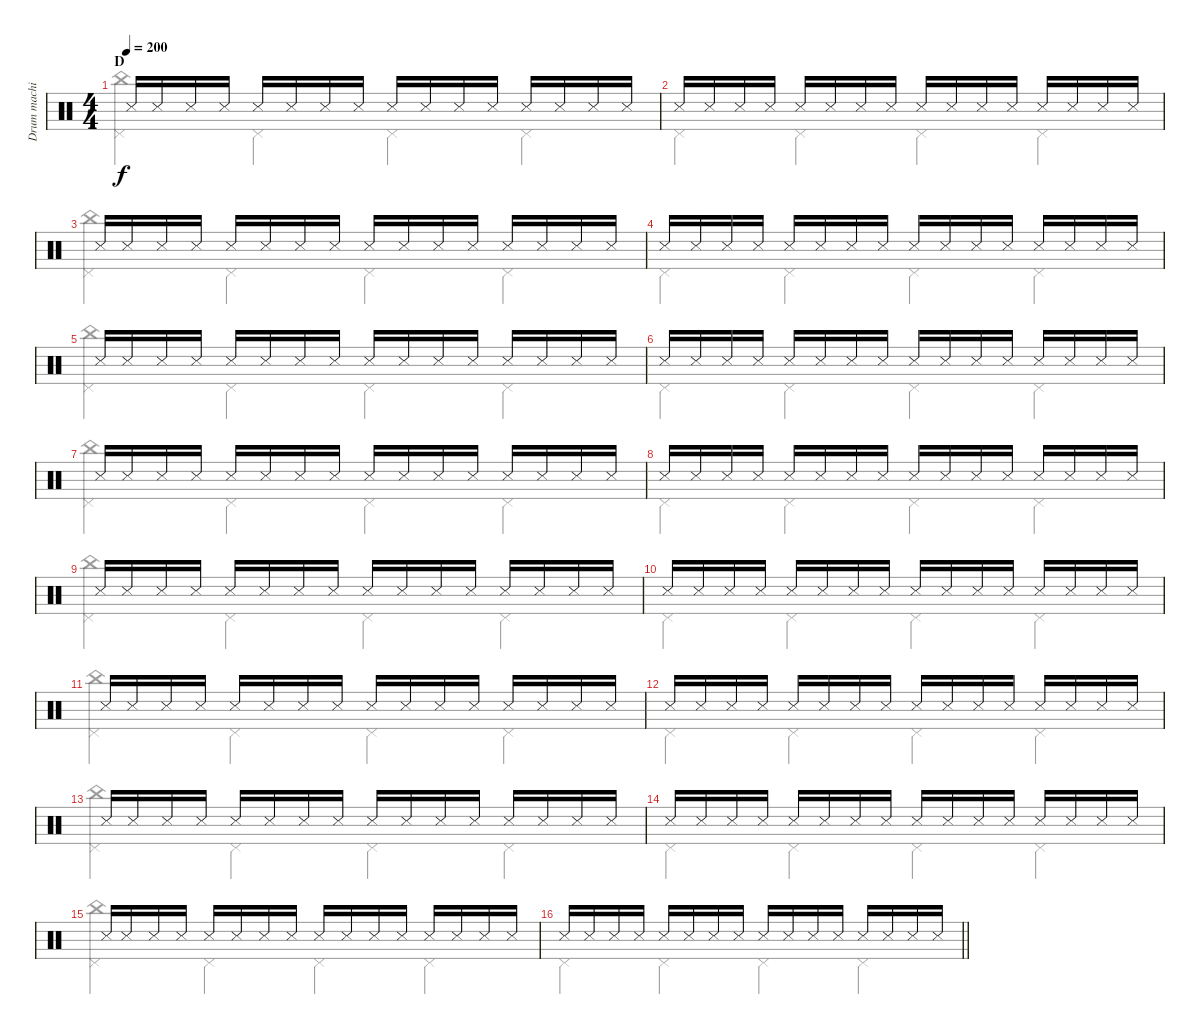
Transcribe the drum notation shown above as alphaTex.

\track ("Drum machine" "Drum machi") {instrument percussion}
\staff {score}
\articulation defaults
\voice
\ts (4 4)
\section ("" "D")
\tempo 200
\clef neutral
\ks c "Snare (side stick) 3".16{dy f beam Up} "Snare (side stick) 3".16{beam Up} "Snare (side stick) 3".16{beam Up} "Snare (side stick) 3".16{beam Up} "Snare (side stick) 3".16{beam Up} "Snare (side stick) 3".16{beam Up} "Snare (side stick) 3".16{beam Up} "Snare (side stick) 3".16{beam Up} "Snare (side stick) 3".16{beam Up} "Snare (side stick) 3".16{beam Up} "Snare (side stick) 3".16{beam Up} "Snare (side stick) 3".16{beam Up} "Snare (side stick) 3".16{beam Up} "Snare (side stick) 3".16{beam Up} "Snare (side stick) 3".16{beam Up} "Snare (side stick) 3".16{beam Up}
|
"Snare (side stick) 3".16{beam Up} "Snare (side stick) 3".16{beam Up} "Snare (side stick) 3".16{beam Up} "Snare (side stick) 3".16{beam Up} "Snare (side stick) 3".16{beam Up} "Snare (side stick) 3".16{beam Up} "Snare (side stick) 3".16{beam Up} "Snare (side stick) 3".16{beam Up} "Snare (side stick) 3".16{beam Up} "Snare (side stick) 3".16{beam Up} "Snare (side stick) 3".16{beam Up} "Snare (side stick) 3".16{beam Up} "Snare (side stick) 3".16{beam Up} "Snare (side stick) 3".16{beam Up} "Snare (side stick) 3".16{beam Up} "Snare (side stick) 3".16{beam Up} |
"Snare (side stick) 3".16{beam Up} "Snare (side stick) 3".16{beam Up} "Snare (side stick) 3".16{beam Up} "Snare (side stick) 3".16{beam Up} "Snare (side stick) 3".16{beam Up} "Snare (side stick) 3".16{beam Up} "Snare (side stick) 3".16{beam Up} "Snare (side stick) 3".16{beam Up} "Snare (side stick) 3".16{beam Up} "Snare (side stick) 3".16{beam Up} "Snare (side stick) 3".16{beam Up} "Snare (side stick) 3".16{beam Up} "Snare (side stick) 3".16{beam Up} "Snare (side stick) 3".16{beam Up} "Snare (side stick) 3".16{beam Up} "Snare (side stick) 3".16{beam Up} |
"Snare (side stick) 3".16{beam Up} "Snare (side stick) 3".16{beam Up} "Snare (side stick) 3".16{beam Up} "Snare (side stick) 3".16{beam Up} "Snare (side stick) 3".16{beam Up} "Snare (side stick) 3".16{beam Up} "Snare (side stick) 3".16{beam Up} "Snare (side stick) 3".16{beam Up} "Snare (side stick) 3".16{beam Up} "Snare (side stick) 3".16{beam Up} "Snare (side stick) 3".16{beam Up} "Snare (side stick) 3".16{beam Up} "Snare (side stick) 3".16{beam Up} "Snare (side stick) 3".16{beam Up} "Snare (side stick) 3".16{beam Up} "Snare (side stick) 3".16{beam Up} |
"Snare (side stick) 3".16{beam Up} "Snare (side stick) 3".16{beam Up} "Snare (side stick) 3".16{beam Up} "Snare (side stick) 3".16{beam Up} "Snare (side stick) 3".16{beam Up} "Snare (side stick) 3".16{beam Up} "Snare (side stick) 3".16{beam Up} "Snare (side stick) 3".16{beam Up} "Snare (side stick) 3".16{beam Up} "Snare (side stick) 3".16{beam Up} "Snare (side stick) 3".16{beam Up} "Snare (side stick) 3".16{beam Up} "Snare (side stick) 3".16{beam Up} "Snare (side stick) 3".16{beam Up} "Snare (side stick) 3".16{beam Up} "Snare (side stick) 3".16{beam Up} |
"Snare (side stick) 3".16{beam Up} "Snare (side stick) 3".16{beam Up} "Snare (side stick) 3".16{beam Up} "Snare (side stick) 3".16{beam Up} "Snare (side stick) 3".16{beam Up} "Snare (side stick) 3".16{beam Up} "Snare (side stick) 3".16{beam Up} "Snare (side stick) 3".16{beam Up} "Snare (side stick) 3".16{beam Up} "Snare (side stick) 3".16{beam Up} "Snare (side stick) 3".16{beam Up} "Snare (side stick) 3".16{beam Up} "Snare (side stick) 3".16{beam Up} "Snare (side stick) 3".16{beam Up} "Snare (side stick) 3".16{beam Up} "Snare (side stick) 3".16{beam Up} |
"Snare (side stick) 3".16{beam Up} "Snare (side stick) 3".16{beam Up} "Snare (side stick) 3".16{beam Up} "Snare (side stick) 3".16{beam Up} "Snare (side stick) 3".16{beam Up} "Snare (side stick) 3".16{beam Up} "Snare (side stick) 3".16{beam Up} "Snare (side stick) 3".16{beam Up} "Snare (side stick) 3".16{beam Up} "Snare (side stick) 3".16{beam Up} "Snare (side stick) 3".16{beam Up} "Snare (side stick) 3".16{beam Up} "Snare (side stick) 3".16{beam Up} "Snare (side stick) 3".16{beam Up} "Snare (side stick) 3".16{beam Up} "Snare (side stick) 3".16{beam Up} |
"Snare (side stick) 3".16{beam Up} "Snare (side stick) 3".16{beam Up} "Snare (side stick) 3".16{beam Up} "Snare (side stick) 3".16{beam Up} "Snare (side stick) 3".16{beam Up} "Snare (side stick) 3".16{beam Up} "Snare (side stick) 3".16{beam Up} "Snare (side stick) 3".16{beam Up} "Snare (side stick) 3".16{beam Up} "Snare (side stick) 3".16{beam Up} "Snare (side stick) 3".16{beam Up} "Snare (side stick) 3".16{beam Up} "Snare (side stick) 3".16{beam Up} "Snare (side stick) 3".16{beam Up} "Snare (side stick) 3".16{beam Up} "Snare (side stick) 3".16{beam Up} |
"Snare (side stick) 3".16{beam Up} "Snare (side stick) 3".16{beam Up} "Snare (side stick) 3".16{beam Up} "Snare (side stick) 3".16{beam Up} "Snare (side stick) 3".16{beam Up} "Snare (side stick) 3".16{beam Up} "Snare (side stick) 3".16{beam Up} "Snare (side stick) 3".16{beam Up} "Snare (side stick) 3".16{beam Up} "Snare (side stick) 3".16{beam Up} "Snare (side stick) 3".16{beam Up} "Snare (side stick) 3".16{beam Up} "Snare (side stick) 3".16{beam Up} "Snare (side stick) 3".16{beam Up} "Snare (side stick) 3".16{beam Up} "Snare (side stick) 3".16{beam Up} |
"Snare (side stick) 3".16{beam Up} "Snare (side stick) 3".16{beam Up} "Snare (side stick) 3".16{beam Up} "Snare (side stick) 3".16{beam Up} "Snare (side stick) 3".16{beam Up} "Snare (side stick) 3".16{beam Up} "Snare (side stick) 3".16{beam Up} "Snare (side stick) 3".16{beam Up} "Snare (side stick) 3".16{beam Up} "Snare (side stick) 3".16{beam Up} "Snare (side stick) 3".16{beam Up} "Snare (side stick) 3".16{beam Up} "Snare (side stick) 3".16{beam Up} "Snare (side stick) 3".16{beam Up} "Snare (side stick) 3".16{beam Up} "Snare (side stick) 3".16{beam Up} |
"Snare (side stick) 3".16{beam Up} "Snare (side stick) 3".16{beam Up} "Snare (side stick) 3".16{beam Up} "Snare (side stick) 3".16{beam Up} "Snare (side stick) 3".16{beam Up} "Snare (side stick) 3".16{beam Up} "Snare (side stick) 3".16{beam Up} "Snare (side stick) 3".16{beam Up} "Snare (side stick) 3".16{beam Up} "Snare (side stick) 3".16{beam Up} "Snare (side stick) 3".16{beam Up} "Snare (side stick) 3".16{beam Up} "Snare (side stick) 3".16{beam Up} "Snare (side stick) 3".16{beam Up} "Snare (side stick) 3".16{beam Up} "Snare (side stick) 3".16{beam Up} |
"Snare (side stick) 3".16{beam Up} "Snare (side stick) 3".16{beam Up} "Snare (side stick) 3".16{beam Up} "Snare (side stick) 3".16{beam Up} "Snare (side stick) 3".16{beam Up} "Snare (side stick) 3".16{beam Up} "Snare (side stick) 3".16{beam Up} "Snare (side stick) 3".16{beam Up} "Snare (side stick) 3".16{beam Up} "Snare (side stick) 3".16{beam Up} "Snare (side stick) 3".16{beam Up} "Snare (side stick) 3".16{beam Up} "Snare (side stick) 3".16{beam Up} "Snare (side stick) 3".16{beam Up} "Snare (side stick) 3".16{beam Up} "Snare (side stick) 3".16{beam Up} |
"Snare (side stick) 3".16{beam Up} "Snare (side stick) 3".16{beam Up} "Snare (side stick) 3".16{beam Up} "Snare (side stick) 3".16{beam Up} "Snare (side stick) 3".16{beam Up} "Snare (side stick) 3".16{beam Up} "Snare (side stick) 3".16{beam Up} "Snare (side stick) 3".16{beam Up} "Snare (side stick) 3".16{beam Up} "Snare (side stick) 3".16{beam Up} "Snare (side stick) 3".16{beam Up} "Snare (side stick) 3".16{beam Up} "Snare (side stick) 3".16{beam Up} "Snare (side stick) 3".16{beam Up} "Snare (side stick) 3".16{beam Up} "Snare (side stick) 3".16{beam Up} |
"Snare (side stick) 3".16{beam Up} "Snare (side stick) 3".16{beam Up} "Snare (side stick) 3".16{beam Up} "Snare (side stick) 3".16{beam Up} "Snare (side stick) 3".16{beam Up} "Snare (side stick) 3".16{beam Up} "Snare (side stick) 3".16{beam Up} "Snare (side stick) 3".16{beam Up} "Snare (side stick) 3".16{beam Up} "Snare (side stick) 3".16{beam Up} "Snare (side stick) 3".16{beam Up} "Snare (side stick) 3".16{beam Up} "Snare (side stick) 3".16{beam Up} "Snare (side stick) 3".16{beam Up} "Snare (side stick) 3".16{beam Up} "Snare (side stick) 3".16{beam Up} |
"Snare (side stick) 3".16{beam Up} "Snare (side stick) 3".16{beam Up} "Snare (side stick) 3".16{beam Up} "Snare (side stick) 3".16{beam Up} "Snare (side stick) 3".16{beam Up} "Snare (side stick) 3".16{beam Up} "Snare (side stick) 3".16{beam Up} "Snare (side stick) 3".16{beam Up} "Snare (side stick) 3".16{beam Up} "Snare (side stick) 3".16{beam Up} "Snare (side stick) 3".16{beam Up} "Snare (side stick) 3".16{beam Up} "Snare (side stick) 3".16{beam Up} "Snare (side stick) 3".16{beam Up} "Snare (side stick) 3".16{beam Up} "Snare (side stick) 3".16{beam Up} |
\barLineRight lightlight "Snare (side stick) 3".16{beam Up} "Snare (side stick) 3".16{beam Up} "Snare (side stick) 3".16{beam Up} "Snare (side stick) 3".16{beam Up} "Snare (side stick) 3".16{beam Up} "Snare (side stick) 3".16{beam Up} "Snare (side stick) 3".16{beam Up} "Snare (side stick) 3".16{beam Up} "Snare (side stick) 3".16{beam Up} "Snare (side stick) 3".16{beam Up} "Snare (side stick) 3".16{beam Up} "Snare (side stick) 3".16{beam Up} "Snare (side stick) 3".16{beam Up} "Snare (side stick) 3".16{beam Up} "Snare (side stick) 3".16{beam Up} "Snare (side stick) 3".16{beam Up}
\voice
\clef neutral
\ottava regular
\simile none
\ks c
("Pedal Hi-Hat (hit)" "China (hit)").4{dy f beam Down} "Pedal Hi-Hat (hit)".4{beam Down} "Pedal Hi-Hat (hit)".4{beam Down} "Pedal Hi-Hat (hit)".4{beam Down} |
"Pedal Hi-Hat (hit)".4{beam Down} "Pedal Hi-Hat (hit)".4{beam Down} "Pedal Hi-Hat (hit)".4{beam Down} "Pedal Hi-Hat (hit)".4{beam Down} |
("Pedal Hi-Hat (hit)" "China (hit)").4{beam Down} "Pedal Hi-Hat (hit)".4{beam Down} "Pedal Hi-Hat (hit)".4{beam Down} "Pedal Hi-Hat (hit)".4{beam Down} |
"Pedal Hi-Hat (hit)".4{beam Down} "Pedal Hi-Hat (hit)".4{beam Down} "Pedal Hi-Hat (hit)".4{beam Down} "Pedal Hi-Hat (hit)".4{beam Down} |
("Pedal Hi-Hat (hit)" "China (hit)").4{beam Down} "Pedal Hi-Hat (hit)".4{beam Down} "Pedal Hi-Hat (hit)".4{beam Down} "Pedal Hi-Hat (hit)".4{beam Down} |
"Pedal Hi-Hat (hit)".4{beam Down} "Pedal Hi-Hat (hit)".4{beam Down} "Pedal Hi-Hat (hit)".4{beam Down} "Pedal Hi-Hat (hit)".4{beam Down} |
("Pedal Hi-Hat (hit)" "China (hit)").4{beam Down} "Pedal Hi-Hat (hit)".4{beam Down} "Pedal Hi-Hat (hit)".4{beam Down} "Pedal Hi-Hat (hit)".4{beam Down} |
"Pedal Hi-Hat (hit)".4{beam Down} "Pedal Hi-Hat (hit)".4{beam Down} "Pedal Hi-Hat (hit)".4{beam Down} "Pedal Hi-Hat (hit)".4{beam Down} |
("Pedal Hi-Hat (hit)" "China (hit)").4{beam Down} "Pedal Hi-Hat (hit)".4{beam Down} "Pedal Hi-Hat (hit)".4{beam Down} "Pedal Hi-Hat (hit)".4{beam Down} |
"Pedal Hi-Hat (hit)".4{beam Down} "Pedal Hi-Hat (hit)".4{beam Down} "Pedal Hi-Hat (hit)".4{beam Down} "Pedal Hi-Hat (hit)".4{beam Down} |
("Pedal Hi-Hat (hit)" "China (hit)").4{beam Down} "Pedal Hi-Hat (hit)".4{beam Down} "Pedal Hi-Hat (hit)".4{beam Down} "Pedal Hi-Hat (hit)".4{beam Down} |
"Pedal Hi-Hat (hit)".4{beam Down} "Pedal Hi-Hat (hit)".4{beam Down} "Pedal Hi-Hat (hit)".4{beam Down} "Pedal Hi-Hat (hit)".4{beam Down} |
("Pedal Hi-Hat (hit)" "China (hit)").4{beam Down} "Pedal Hi-Hat (hit)".4{beam Down} "Pedal Hi-Hat (hit)".4{beam Down} "Pedal Hi-Hat (hit)".4{beam Down} |
"Pedal Hi-Hat (hit)".4{beam Down} "Pedal Hi-Hat (hit)".4{beam Down} "Pedal Hi-Hat (hit)".4{beam Down} "Pedal Hi-Hat (hit)".4{beam Down} |
("Pedal Hi-Hat (hit)" "China (hit)").4{beam Down} "Pedal Hi-Hat (hit)".4{beam Down} "Pedal Hi-Hat (hit)".4{beam Down} "Pedal Hi-Hat (hit)".4{beam Down} |
\barLineRight lightlight "Pedal Hi-Hat (hit)".4{beam Down} "Pedal Hi-Hat (hit)".4{beam Down} "Pedal Hi-Hat (hit)".4{beam Down} "Pedal Hi-Hat (hit)".4{beam Down}
